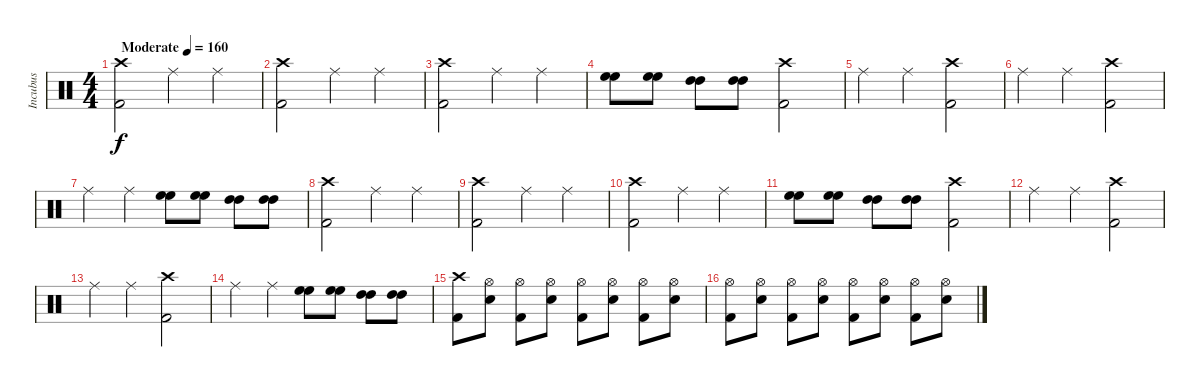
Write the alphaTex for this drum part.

\track ("Incubus" "Incubus") {instrument percussion}
\staff {score}
\articulation defaults
\ts (4 4)
\tempo (160 "Moderate")
\clef neutral
\ks c
("Crash high (hit)" "Kick (hit) 2").2{dy f} "Ride (middle)".4 "Ride (middle)".4 |
("Crash high (hit)" "Kick (hit) 2").2 "Ride (middle)".4 "Ride (middle)".4 |
("Crash high (hit)" "Kick (hit) 2").2 "Ride (middle)".4 "Ride (middle)".4 |
("High Floor Tom (hit)" "High Floor Tom (hit)").8 ("High Floor Tom (hit)" "High Floor Tom (hit)").8 ("High Tom (hit)" "High Tom (hit)").8 ("High Tom (hit)" "High Tom (hit)").8 ("Crash high (hit)" "Kick (hit) 2").2 |
"Ride (middle)".4 "Ride (middle)".4 ("Crash high (hit)" "Kick (hit) 2").2 |
"Ride (middle)".4 "Ride (middle)".4 ("Crash high (hit)" "Kick (hit) 2").2 |
"Ride (middle)".4 "Ride (middle)".4 ("High Floor Tom (hit)" "High Floor Tom (hit)").8 ("High Floor Tom (hit)" "High Floor Tom (hit)").8 ("High Tom (hit)" "High Tom (hit)").8 ("High Tom (hit)" "High Tom (hit)").8 |
("Crash high (hit)" "Kick (hit) 2").2 "Ride (middle)".4 "Ride (middle)".4 |
("Crash high (hit)" "Kick (hit) 2").2 "Ride (middle)".4 "Ride (middle)".4 |
("Crash high (hit)" "Kick (hit) 2").2 "Ride (middle)".4 "Ride (middle)".4 |
("High Floor Tom (hit)" "High Floor Tom (hit)").8 ("High Floor Tom (hit)" "High Floor Tom (hit)").8 ("High Tom (hit)" "High Tom (hit)").8 ("High Tom (hit)" "High Tom (hit)").8 ("Crash high (hit)" "Kick (hit) 2").2 |
"Ride (middle)".4 "Ride (middle)".4 ("Crash high (hit)" "Kick (hit) 2").2 |
"Ride (middle)".4 "Ride (middle)".4 ("Crash high (hit)" "Kick (hit) 2").2 |
"Ride (middle)".4 "Ride (middle)".4 ("High Floor Tom (hit)" "High Floor Tom (hit)").8 ("High Floor Tom (hit)" "High Floor Tom (hit)").8 ("High Tom (hit)" "High Tom (hit)").8 ("High Tom (hit)" "High Tom (hit)").8 |
("Crash high (hit)" "Kick (hit) 2").8 ("Hi-Hat (open)" "Snare (hit) 2").8 ("Hi-Hat (open)" "Kick (hit) 2").8 ("Hi-Hat (open)" "Snare (hit) 2").8 ("Hi-Hat (open)" "Kick (hit) 2").8 ("Hi-Hat (open)" "Snare (hit) 2").8 ("Hi-Hat (open)" "Kick (hit) 2").8 ("Hi-Hat (open)" "Snare (hit) 2").8 |
("Hi-Hat (open)" "Kick (hit) 2").8 ("Hi-Hat (open)" "Snare (hit) 2").8 ("Hi-Hat (open)" "Kick (hit) 2").8 ("Hi-Hat (open)" "Snare (hit) 2").8 ("Hi-Hat (open)" "Kick (hit) 2").8 ("Hi-Hat (open)" "Snare (hit) 2").8 ("Hi-Hat (open)" "Kick (hit) 2").8 ("Hi-Hat (open)" "Snare (hit) 2").8
